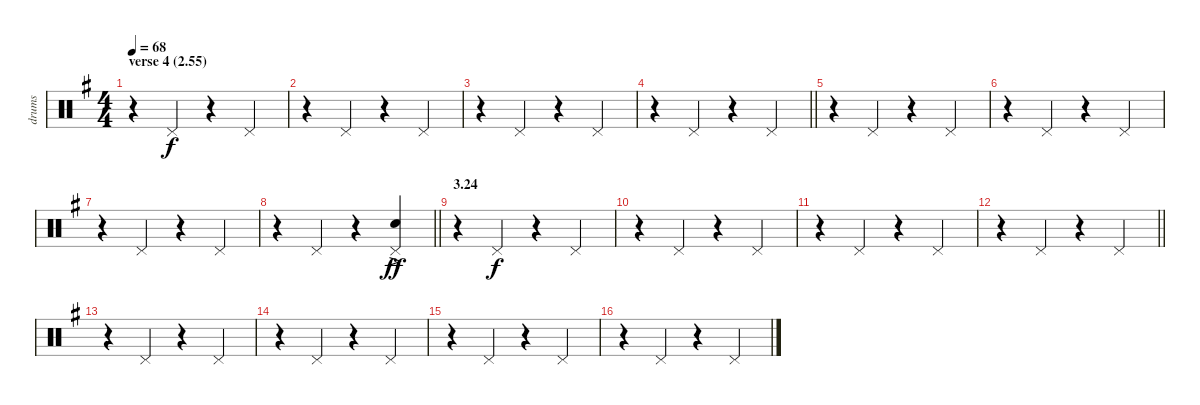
\track ("drums" "drums") {instrument percussion}
\staff {score}
\articulation defaults
\ts (4 4)
\section ("" "verse 4 (2.55)")
\tempo 68
\clef neutral
\ks g
r.4{dy f} "Pedal Hi-Hat (hit)".4 r.4 "Pedal Hi-Hat (hit)".4 |
r.4 "Pedal Hi-Hat (hit)".4 r.4 "Pedal Hi-Hat (hit)".4 |
r.4 "Pedal Hi-Hat (hit)".4 r.4 "Pedal Hi-Hat (hit)".4 |
\barLineRight lightlight
r.4 "Pedal Hi-Hat (hit)".4 r.4 "Pedal Hi-Hat (hit)".4 |
r.4 "Pedal Hi-Hat (hit)".4 r.4 "Pedal Hi-Hat (hit)".4 |
r.4 "Pedal Hi-Hat (hit)".4 r.4 "Pedal Hi-Hat (hit)".4 |
r.4 "Pedal Hi-Hat (hit)".4 r.4 "Pedal Hi-Hat (hit)".4 |
\barLineRight lightlight
r.4 "Pedal Hi-Hat (hit)".4 r.4 ("Pedal Hi-Hat (hit)" "Snare (hit) 2"{ac}).4{dy ff} |
\section ("" "3.24")
r.4 "Pedal Hi-Hat (hit)".4{dy f} r.4 "Pedal Hi-Hat (hit)".4 |
r.4 "Pedal Hi-Hat (hit)".4 r.4 "Pedal Hi-Hat (hit)".4 |
r.4 "Pedal Hi-Hat (hit)".4 r.4 "Pedal Hi-Hat (hit)".4 |
\barLineRight lightlight
r.4 "Pedal Hi-Hat (hit)".4 r.4 "Pedal Hi-Hat (hit)".4 |
r.4 "Pedal Hi-Hat (hit)".4 r.4 "Pedal Hi-Hat (hit)".4 |
r.4 "Pedal Hi-Hat (hit)".4 r.4 "Pedal Hi-Hat (hit)".4 |
r.4 "Pedal Hi-Hat (hit)".4 r.4 "Pedal Hi-Hat (hit)".4 |
r.4 "Pedal Hi-Hat (hit)".4 r.4 "Pedal Hi-Hat (hit)".4
